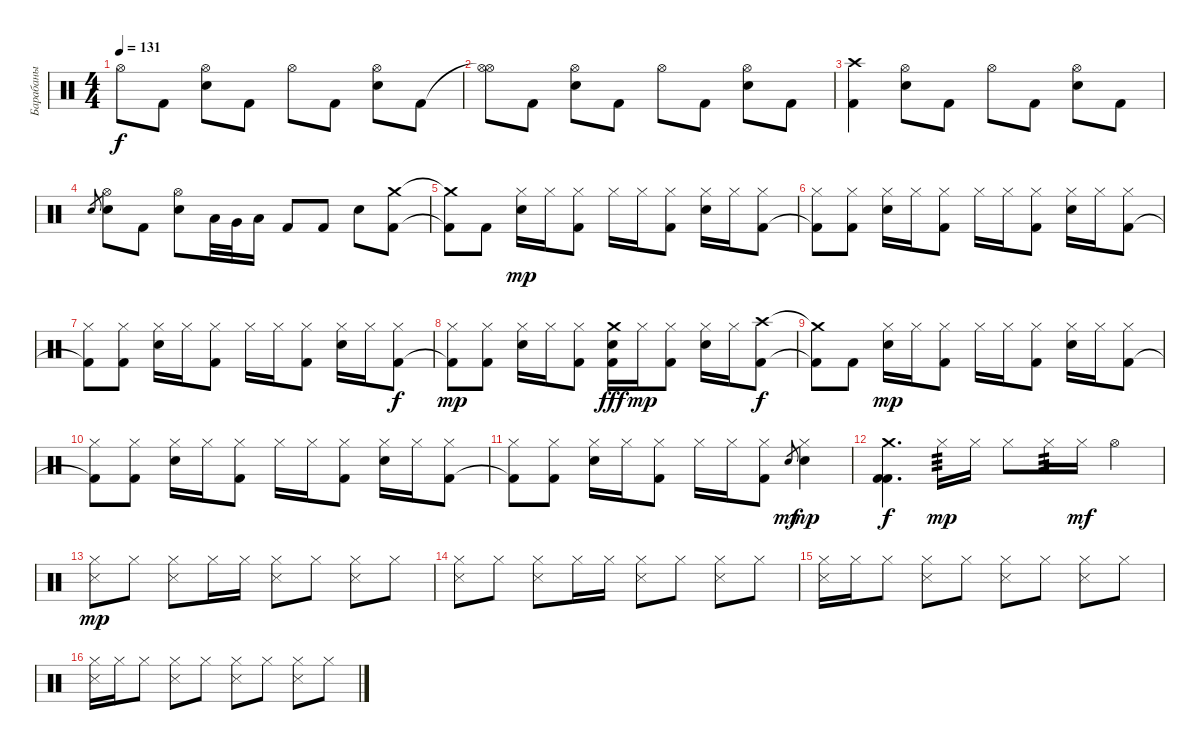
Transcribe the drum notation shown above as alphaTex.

\track ("Барабаны" "Барабаны") {instrument percussion}
\staff {score}
\articulation defaults
\ts (4 4)
\tempo 131
\clef neutral
\ks c "Hi-Hat (open)"{t}.8{dy f} "Kick (hit) 2".8
("Snare (hit) 2" "Hi-Hat (open)").8 "Kick (hit) 2".8 "Hi-Hat (open)".8 "Kick (hit) 2".8 ("Hi-Hat (open)" "Snare (hit) 2").8 "Kick (hit) 2".8 |
("Hi-Hat (open)"{t} "Hi-Hat (open)").8 "Kick (hit) 2".8 ("Snare (hit) 2" "Hi-Hat (open)").8 "Kick (hit) 2".8 "Hi-Hat (open)".8 "Kick (hit) 2".8 ("Hi-Hat (open)" "Snare (hit) 2").8 "Kick (hit) 2".8 |
("Crash high (hit)" "Kick (hit) 2").4 ("Hi-Hat (open)" "Snare (hit) 2").8 "Kick (hit) 2".8 "Hi-Hat (open)".8 "Kick (hit) 2".8 ("Hi-Hat (open)" "Snare (hit) 2").8 "Kick (hit) 2".8 |
"Snare (hit) 2".8{gr} ("Hi-Hat (open)" "Snare (hit) 2").8 "Kick (hit) 2".8 ("Hi-Hat (open)" "Snare (hit) 2").8 "Low Tom (hit)".32 "Very Low Tom (hit)".32 "Low Floor Tom (hit)".16 "Kick (hit) 2".8 "Kick (hit) 2".8 "Snare (hit) 2".8 ("Crash medium (hit)" "Kick (hit) 2").8 |
("Crash medium (hit)"{t} "Kick (hit) 2"{t}).8 "Kick (hit) 2".8 ("Hi-Hat (closed)" "Snare (hit) 2").16{dy mp} "Hi-Hat (closed)".16 ("Hi-Hat (closed)" "Kick (hit) 2").8 "Hi-Hat (closed)".16 "Hi-Hat (closed)".16 ("Hi-Hat (closed)" "Kick (hit) 2").8 ("Hi-Hat (closed)" "Snare (hit) 2").16 "Hi-Hat (closed)".16 ("Hi-Hat (closed)" "Kick (hit) 2").8 |
("Hi-Hat (closed)" "Kick (hit) 2"{t}).8 ("Hi-Hat (closed)" "Kick (hit) 2").8 ("Hi-Hat (closed)" "Snare (hit) 2").16 "Hi-Hat (closed)".16 ("Hi-Hat (closed)" "Kick (hit) 2").8 "Hi-Hat (closed)".16 "Hi-Hat (closed)".16 ("Hi-Hat (closed)" "Kick (hit) 2").8 ("Hi-Hat (closed)" "Snare (hit) 2").16 "Hi-Hat (closed)".16 ("Hi-Hat (closed)" "Kick (hit) 2").8 |
("Hi-Hat (closed)" "Kick (hit) 2"{t}).8 ("Hi-Hat (closed)" "Kick (hit) 2").8 ("Hi-Hat (closed)" "Snare (hit) 2").16 "Hi-Hat (closed)".16 ("Hi-Hat (closed)" "Kick (hit) 2").8 "Hi-Hat (closed)".16 "Hi-Hat (closed)".16 ("Hi-Hat (closed)" "Kick (hit) 2").8 ("Hi-Hat (closed)" "Snare (hit) 2").16 "Hi-Hat (closed)".16 ("Hi-Hat (closed)" "Kick (hit) 2").8{dy f} |
("Hi-Hat (closed)" "Kick (hit) 2"{t}).8{dy mp} ("Hi-Hat (closed)" "Kick (hit) 2").8 ("Hi-Hat (closed)" "Snare (hit) 2").16 "Hi-Hat (closed)".16 ("Hi-Hat (closed)" "Kick (hit) 2").8 ("Crash medium (hit)" "Snare (hit) 2" "Kick (hit) 2").16{dy fff} "Hi-Hat (closed)".16{dy mp} ("Hi-Hat (closed)" "Kick (hit) 2").8 ("Hi-Hat (closed)" "Snare (hit) 2").16 "Hi-Hat (closed)".16 ("Crash high (hit)" "Kick (hit) 2").8{dy f} |
("Crash medium (hit)"{t} "Kick (hit) 2"{t}).8 "Kick (hit) 2".8 ("Hi-Hat (closed)" "Snare (hit) 2").16{dy mp} "Hi-Hat (closed)".16 ("Hi-Hat (closed)" "Kick (hit) 2").8 "Hi-Hat (closed)".16 "Hi-Hat (closed)".16 ("Hi-Hat (closed)" "Kick (hit) 2").8 ("Hi-Hat (closed)" "Snare (hit) 2").16 "Hi-Hat (closed)".16 ("Hi-Hat (closed)" "Kick (hit) 2").8 |
("Hi-Hat (closed)" "Kick (hit) 2"{t}).8 ("Hi-Hat (closed)" "Kick (hit) 2").8 ("Hi-Hat (closed)" "Snare (hit) 2").16 "Hi-Hat (closed)".16 ("Hi-Hat (closed)" "Kick (hit) 2").8 "Hi-Hat (closed)".16 "Hi-Hat (closed)".16 ("Hi-Hat (closed)" "Kick (hit) 2").8 ("Hi-Hat (closed)" "Snare (hit) 2").16 "Hi-Hat (closed)".16 ("Hi-Hat (closed)" "Kick (hit) 2").8 |
("Hi-Hat (closed)" "Kick (hit) 2"{t}).8 ("Hi-Hat (closed)" "Kick (hit) 2").8 ("Hi-Hat (closed)" "Snare (hit) 2").16 "Hi-Hat (closed)".16 ("Hi-Hat (closed)" "Kick (hit) 2").8 "Hi-Hat (closed)".16 "Hi-Hat (closed)".16 ("Hi-Hat (closed)" "Kick (hit) 2").8 "Snare (hit) 2".8{gr dy mf} ("Hi-Hat (closed)" "Snare (hit) 2").4{dy mp} |
("Crash medium (hit)" "Kick (hit) 2" "Kick (hit) 2").4{d dy f} "Hi-Hat (closed)".16{tp 3 dy mp} "Hi-Hat (closed)".16 "Hi-Hat (closed)".8 "Hi-Hat (closed)".16{tp 3} "Hi-Hat (closed)".16{dy mf} "Hi-Hat (open)".4 |
("Hi-Hat (closed)" "Snare (side stick) 3").8{dy mp} "Hi-Hat (closed)".8 ("Hi-Hat (closed)" "Snare (side stick) 3").8 "Hi-Hat (closed)".16 "Hi-Hat (closed)".16 ("Hi-Hat (closed)" "Snare (side stick) 3").8 "Hi-Hat (closed)".8 ("Hi-Hat (closed)" "Snare (side stick) 3").8 "Hi-Hat (closed)".8 |
("Hi-Hat (closed)" "Snare (side stick) 3").8 "Hi-Hat (closed)".8 ("Hi-Hat (closed)" "Snare (side stick) 3").8 "Hi-Hat (closed)".16 "Hi-Hat (closed)".16 ("Hi-Hat (closed)" "Snare (side stick) 3").8 "Hi-Hat (closed)".8 ("Hi-Hat (closed)" "Snare (side stick) 3").8 "Hi-Hat (closed)".8 |
("Hi-Hat (closed)" "Snare (side stick) 3").16 "Hi-Hat (closed)".16 "Hi-Hat (closed)".8 ("Hi-Hat (closed)" "Snare (side stick) 3").8 "Hi-Hat (closed)".8 ("Hi-Hat (closed)" "Snare (side stick) 3").8 "Hi-Hat (closed)".8 ("Hi-Hat (closed)" "Snare (side stick) 3").8 "Hi-Hat (closed)".8 |
("Hi-Hat (closed)" "Snare (side stick) 3").16 "Hi-Hat (closed)".16 "Hi-Hat (closed)".8 ("Hi-Hat (closed)" "Snare (side stick) 3").8 "Hi-Hat (closed)".8 ("Hi-Hat (closed)" "Snare (side stick) 3").8 "Hi-Hat (closed)".8 ("Hi-Hat (closed)" "Snare (side stick) 3").8 "Hi-Hat (closed)".8
